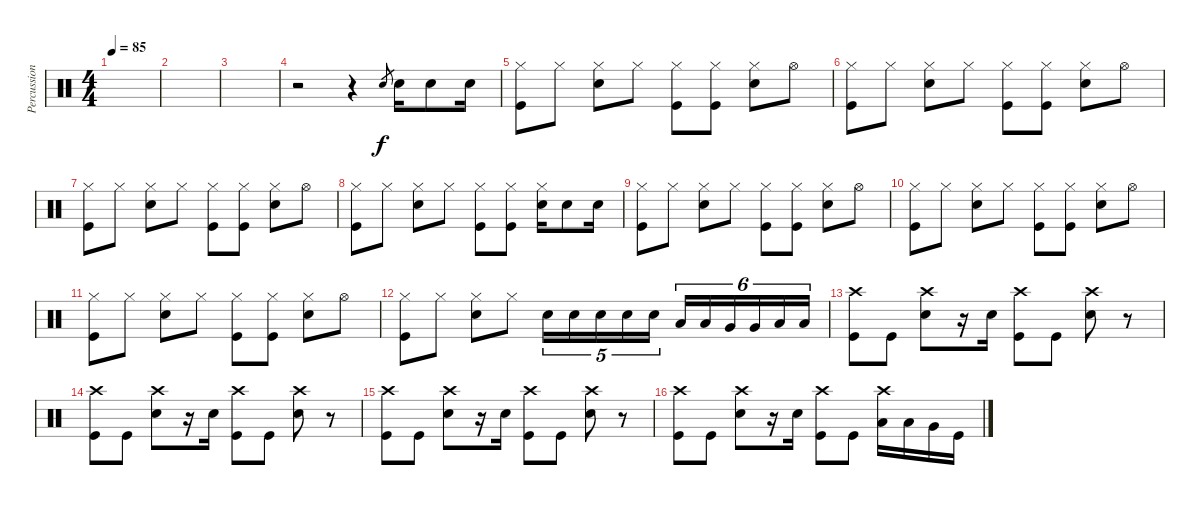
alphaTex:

\track ("Percussions" "Percussion") {instrument percussion}
\staff {score}
\articulation defaults
\ts (4 4)
\tempo 85
\clef neutral
\ks c
|
|
|
r.2 r.4 "Electric Snare (hit)".8{gr} "Electric Snare (hit)".16 "Electric Snare (hit)".8 "Electric Snare (hit)".16 |
("Hi-Hat (closed)" "Kick (hit)").8 "Hi-Hat (closed)".8 ("Hi-Hat (closed)" "Electric Snare (hit)").8 "Hi-Hat (closed)".8 ("Hi-Hat (closed)" "Kick (hit)").8 ("Hi-Hat (closed)" "Kick (hit)").8 ("Hi-Hat (closed)" "Electric Snare (hit)").8 "Hi-Hat (open)".8 |
("Hi-Hat (closed)" "Kick (hit)").8 "Hi-Hat (closed)".8 ("Hi-Hat (closed)" "Electric Snare (hit)").8 "Hi-Hat (closed)".8 ("Hi-Hat (closed)" "Kick (hit)").8 ("Hi-Hat (closed)" "Kick (hit)").8 ("Hi-Hat (closed)" "Electric Snare (hit)").8 "Hi-Hat (open)".8 |
("Hi-Hat (closed)" "Kick (hit)").8 "Hi-Hat (closed)".8 ("Hi-Hat (closed)" "Electric Snare (hit)").8 "Hi-Hat (closed)".8 ("Hi-Hat (closed)" "Kick (hit)").8 ("Hi-Hat (closed)" "Kick (hit)").8 ("Hi-Hat (closed)" "Electric Snare (hit)").8 "Hi-Hat (open)".8 |
("Hi-Hat (closed)" "Kick (hit)").8 "Hi-Hat (closed)".8 ("Hi-Hat (closed)" "Electric Snare (hit)").8 "Hi-Hat (closed)".8 ("Hi-Hat (closed)" "Kick (hit)").8 ("Hi-Hat (closed)" "Kick (hit)").8 ("Hi-Hat (closed)" "Electric Snare (hit)").16 "Electric Snare (hit)".8 "Electric Snare (hit)".16 |
("Hi-Hat (closed)" "Kick (hit)").8 "Hi-Hat (closed)".8 ("Hi-Hat (closed)" "Electric Snare (hit)").8 "Hi-Hat (closed)".8 ("Hi-Hat (closed)" "Kick (hit)").8 ("Hi-Hat (closed)" "Kick (hit)").8 ("Hi-Hat (closed)" "Electric Snare (hit)").8 "Hi-Hat (open)".8 |
("Hi-Hat (closed)" "Kick (hit)").8 "Hi-Hat (closed)".8 ("Hi-Hat (closed)" "Electric Snare (hit)").8 "Hi-Hat (closed)".8 ("Hi-Hat (closed)" "Kick (hit)").8 ("Hi-Hat (closed)" "Kick (hit)").8 ("Hi-Hat (closed)" "Electric Snare (hit)").8 "Hi-Hat (open)".8 |
("Hi-Hat (closed)" "Kick (hit)").8 "Hi-Hat (closed)".8 ("Hi-Hat (closed)" "Electric Snare (hit)").8 "Hi-Hat (closed)".8 ("Hi-Hat (closed)" "Kick (hit)").8 ("Hi-Hat (closed)" "Kick (hit)").8 ("Hi-Hat (closed)" "Electric Snare (hit)").8 "Hi-Hat (open)".8 |
("Hi-Hat (closed)" "Kick (hit)").8 "Hi-Hat (closed)".8 ("Hi-Hat (closed)" "Electric Snare (hit)").8 "Hi-Hat (closed)".8 "Electric Snare (hit)".16{tu (5 4)} "Electric Snare (hit)".16{tu (5 4)} "Electric Snare (hit)".16{tu (5 4)} "Electric Snare (hit)".16{tu (5 4)} "Electric Snare (hit)".16{tu (5 4)} "Low Tom (hit)".16{tu (6 4)} "Low Tom (hit)".16{tu (6 4)} "Very Low Tom (hit)".16{tu (6 4)} "Very Low Tom (hit)".16{tu (6 4)} "Low Floor Tom (hit)".16{tu (6 4)} "Low Floor Tom (hit)".16{tu (6 4)} |
("Crash high (hit)" "Kick (hit)").8 "Kick (hit)".8 ("Crash high (hit)" "Electric Snare (hit)").8 r.16 "Electric Snare (hit)".16 ("Crash high (hit)" "Kick (hit)").8 "Kick (hit)".8 ("Crash high (hit)" "Electric Snare (hit)").8 r.8 |
("Crash high (hit)" "Kick (hit)").8 "Kick (hit)".8 ("Crash high (hit)" "Electric Snare (hit)").8 r.16 "Electric Snare (hit)".16 ("Crash high (hit)" "Kick (hit)").8 "Kick (hit)".8 ("Crash high (hit)" "Electric Snare (hit)").8 r.8 |
("Crash high (hit)" "Kick (hit)").8 "Kick (hit)".8 ("Crash high (hit)" "Electric Snare (hit)").8 r.16 "Electric Snare (hit)".16 ("Crash high (hit)" "Kick (hit)").8 "Kick (hit)".8 ("Crash high (hit)" "Electric Snare (hit)").8 r.8 |
("Crash high (hit)" "Kick (hit)").8 "Kick (hit)".8 ("Crash high (hit)" "Electric Snare (hit)").8 r.16 "Electric Snare (hit)".16 ("Crash high (hit)" "Kick (hit)").8 "Kick (hit)".8 ("Crash high (hit)" "Low Tom (hit)").16 "Low Tom (hit)".16 "Very Low Tom (hit)".16 "Kick (hit)".16
